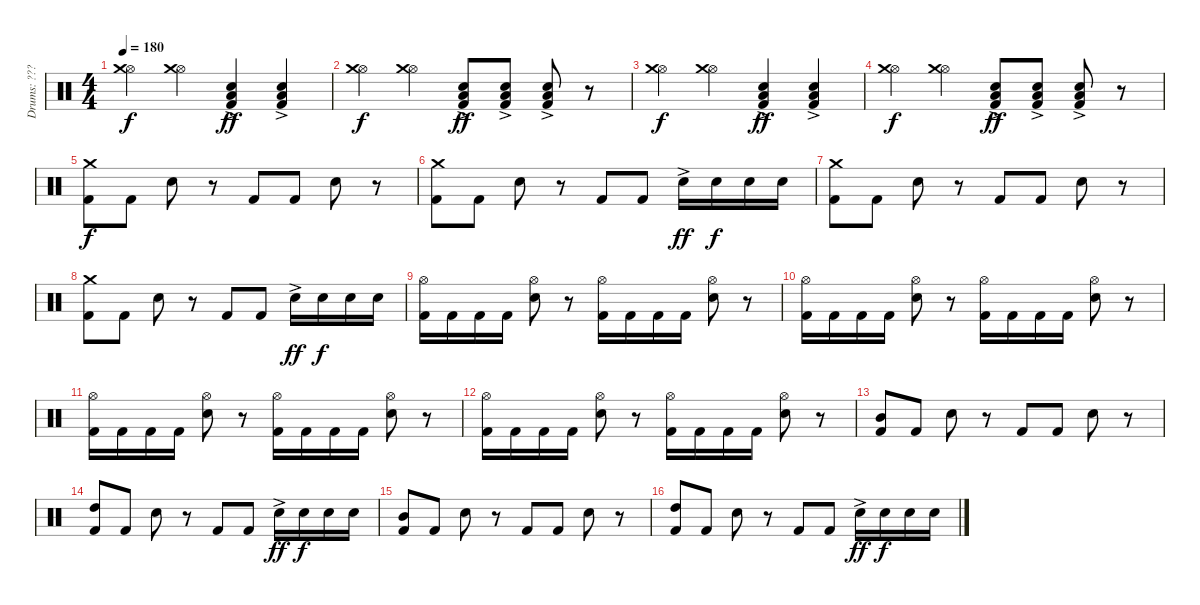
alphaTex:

\track ("Drums: ???" "Drums: ???") {instrument percussion}
\staff {score}
\articulation defaults
\ts (4 4)
\tempo 180
\clef neutral
\ks c
("Hi-Hat (open)" "Crash medium (hit)").4{dy f} ("Hi-Hat (open)" "Crash medium (hit)").4 ("Snare (hit) 2"{ac} "Low Tom (hit)" "Kick (hit) 2").4{dy ff} ("Snare (hit) 2"{ac} "Low Tom (hit)" "Kick (hit) 2").4 |
("Hi-Hat (open)" "Crash medium (hit)").4{dy f} ("Hi-Hat (open)" "Crash medium (hit)").4 ("Snare (hit) 2"{ac} "Low Tom (hit)" "Kick (hit) 2").8{dy ff} ("Snare (hit) 2"{ac} "Low Tom (hit)" "Kick (hit) 2").8 ("Snare (hit) 2"{ac} "Low Tom (hit)" "Kick (hit) 2").8 r.8 |
("Hi-Hat (open)" "Crash medium (hit)").4{dy f} ("Hi-Hat (open)" "Crash medium (hit)").4 ("Snare (hit) 2"{ac} "Low Tom (hit)" "Kick (hit) 2").4{dy ff} ("Snare (hit) 2"{ac} "Low Tom (hit)" "Kick (hit) 2").4 |
("Hi-Hat (open)" "Crash medium (hit)").4{dy f} ("Hi-Hat (open)" "Crash medium (hit)").4 ("Snare (hit) 2"{ac} "Low Tom (hit)" "Kick (hit) 2").8{dy ff} ("Snare (hit) 2"{ac} "Low Tom (hit)" "Kick (hit) 2").8 ("Snare (hit) 2"{ac} "Low Tom (hit)" "Kick (hit) 2").8 r.8 |
("Crash medium (hit)" "Kick (hit) 2").8{dy f} "Kick (hit) 2".8 "Snare (hit) 2".8 r.8 "Kick (hit) 2".8 "Kick (hit) 2".8 "Snare (hit) 2".8 r.8 |
("Crash medium (hit)" "Kick (hit) 2").8 "Kick (hit) 2".8 "Snare (hit) 2".8 r.8 "Kick (hit) 2".8 "Kick (hit) 2".8 "Snare (hit) 2"{ac}.16{dy ff} "Snare (hit) 2".16{dy f} "Snare (hit) 2".16 "Snare (hit) 2".16 |
("Crash medium (hit)" "Kick (hit) 2").8 "Kick (hit) 2".8 "Snare (hit) 2".8 r.8 "Kick (hit) 2".8 "Kick (hit) 2".8 "Snare (hit) 2".8 r.8 |
("Crash medium (hit)" "Kick (hit) 2").8 "Kick (hit) 2".8 "Snare (hit) 2".8 r.8 "Kick (hit) 2".8 "Kick (hit) 2".8 "Snare (hit) 2"{ac}.16{dy ff} "Snare (hit) 2".16{dy f} "Snare (hit) 2".16 "Snare (hit) 2".16 |
("Hi-Hat (open)" "Kick (hit) 2").16 "Kick (hit) 2".16 "Kick (hit) 2".16 "Kick (hit) 2".16 ("Electric Snare (hit)" "Hi-Hat (open)").8 r.8 ("Kick (hit) 2" "Hi-Hat (open)").16 "Kick (hit) 2".16 "Kick (hit) 2".16 "Kick (hit) 2".16 ("Electric Snare (hit)" "Hi-Hat (open)").8 r.8 |
("Hi-Hat (open)" "Kick (hit) 2").16 "Kick (hit) 2".16 "Kick (hit) 2".16 "Kick (hit) 2".16 ("Electric Snare (hit)" "Hi-Hat (open)").8 r.8 ("Kick (hit) 2" "Hi-Hat (open)").16 "Kick (hit) 2".16 "Kick (hit) 2".16 "Kick (hit) 2".16 ("Electric Snare (hit)" "Hi-Hat (open)").8 r.8 |
("Hi-Hat (open)" "Kick (hit) 2").16 "Kick (hit) 2".16 "Kick (hit) 2".16 "Kick (hit) 2".16 ("Electric Snare (hit)" "Hi-Hat (open)").8 r.8 ("Kick (hit) 2" "Hi-Hat (open)").16 "Kick (hit) 2".16 "Kick (hit) 2".16 "Kick (hit) 2".16 ("Electric Snare (hit)" "Hi-Hat (open)").8 r.8 |
("Hi-Hat (open)" "Kick (hit) 2").16 "Kick (hit) 2".16 "Kick (hit) 2".16 "Kick (hit) 2".16 ("Electric Snare (hit)" "Hi-Hat (open)").8 r.8 ("Kick (hit) 2" "Hi-Hat (open)").16 "Kick (hit) 2".16 "Kick (hit) 2".16 "Kick (hit) 2".16 ("Electric Snare (hit)" "Hi-Hat (open)").8 r.8 |
("Mid Tom (hit)" "Kick (hit) 2").8 "Kick (hit) 2".8 "Snare (hit) 2".8 r.8 "Kick (hit) 2".8 "Kick (hit) 2".8 "Snare (hit) 2".8 r.8 |
("High Tom (hit)" "Kick (hit) 2").8 "Kick (hit) 2".8 "Snare (hit) 2".8 r.8 "Kick (hit) 2".8 "Kick (hit) 2".8 "Snare (hit) 2"{ac}.16{dy ff} "Snare (hit) 2".16{dy f} "Snare (hit) 2".16 "Snare (hit) 2".16 |
("Mid Tom (hit)" "Kick (hit) 2").8 "Kick (hit) 2".8 "Snare (hit) 2".8 r.8 "Kick (hit) 2".8 "Kick (hit) 2".8 "Snare (hit) 2".8 r.8 |
("High Tom (hit)" "Kick (hit) 2").8 "Kick (hit) 2".8 "Snare (hit) 2".8 r.8 "Kick (hit) 2".8 "Kick (hit) 2".8 "Snare (hit) 2"{ac}.16{dy ff} "Snare (hit) 2".16{dy f} "Snare (hit) 2".16 "Snare (hit) 2".16
